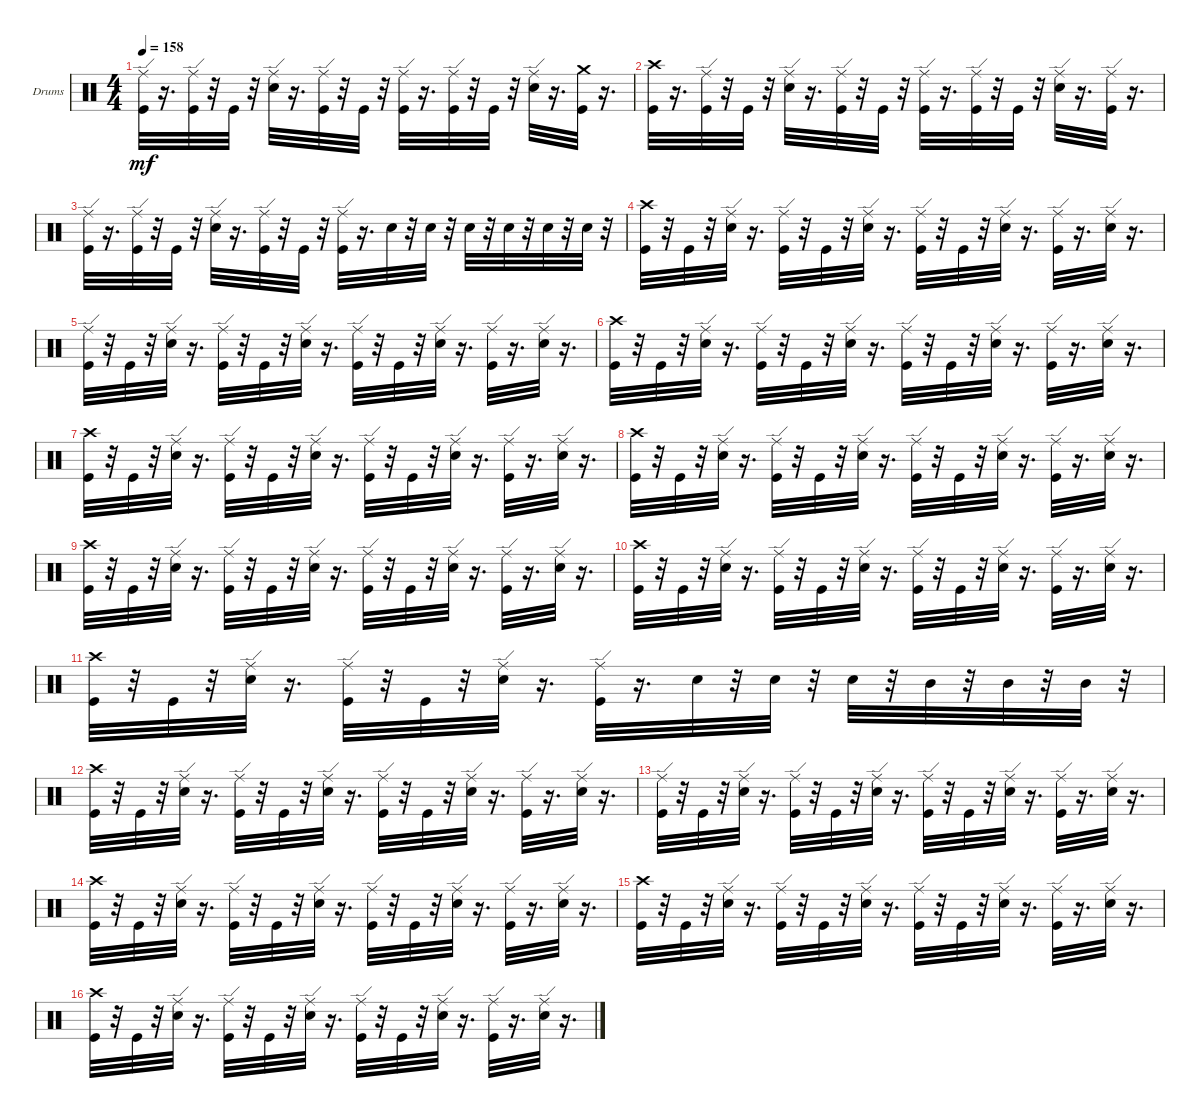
\bracketExtendMode groupsimilarinstruments
\firstSystemTrackNameOrientation horizontal
\otherSystemsTrackNameOrientation horizontal
\track ("" "Drums") {instrument percussion}
\staff {score}
\articulation defaults
\ts (4 4)
\tempo 158
\clef neutral
\ks c
("Ride (edge)" "Kick (hit)").32{dy mf} r.16{d} ("Ride (edge)" "Kick (hit)").32 r.32 "Kick (hit)".32 r.32 ("Ride (edge)" "Snare (hit) 2").32 r.16{d} ("Ride (edge)" "Kick (hit)").32 r.32 "Kick (hit)".32 r.32 ("Ride (edge)" "Kick (hit)").32 r.16{d} ("Ride (edge)" "Kick (hit)").32 r.32 "Kick (hit)".32 r.32 ("Ride (edge)" "Snare (hit) 2").32 r.16{d} ("Crash medium (hit)" "Kick (hit)").32 r.16{d} |
("Crash high (hit)" "Kick (hit)").32 r.16{d} ("Ride (edge)" "Kick (hit)").32 r.32 "Kick (hit)".32 r.32 ("Ride (edge)" "Snare (hit) 2").32 r.16{d} ("Ride (edge)" "Kick (hit)").32 r.32 "Kick (hit)".32 r.32 ("Ride (edge)" "Kick (hit)").32 r.16{d} ("Ride (edge)" "Kick (hit)").32 r.32 "Kick (hit)".32 r.32 ("Ride (edge)" "Snare (hit) 2").32 r.16{d} ("Ride (edge)" "Kick (hit)").32 r.16{d} |
("Ride (edge)" "Kick (hit)").32 r.16{d} ("Ride (edge)" "Kick (hit)").32 r.32 "Kick (hit)".32 r.32 ("Ride (edge)" "Snare (hit) 2").32 r.16{d} ("Ride (edge)" "Kick (hit)").32 r.32 "Kick (hit)".32 r.32 ("Ride (edge)" "Kick (hit)").32 r.16{d} "Snare (hit) 2".32 r.32 "Snare (hit) 2".32 r.32 "Snare (hit) 2".32 r.32 "Snare (hit) 2".32 r.32 "Snare (hit) 2".32 r.32 "Snare (hit) 2".32 r.32 |
("Crash high (hit)" "Kick (hit)").32 r.32 "Kick (hit)".32 r.32 ("Snare (hit) 2" "Ride (edge)").32 r.16{d} ("Ride (edge)" "Kick (hit)").32 r.32 "Kick (hit)".32 r.32 ("Ride (edge)" "Snare (hit) 2").32 r.16{d} ("Kick (hit)" "Ride (edge)").32 r.32 "Kick (hit)".32 r.32 ("Snare (hit) 2" "Ride (edge)").32 r.16{d} ("Kick (hit)" "Ride (edge)").32 r.16{d} ("Snare (hit) 2" "Ride (edge)").32 r.16{d} |
("Ride (edge)" "Kick (hit)").32 r.32 "Kick (hit)".32 r.32 ("Snare (hit) 2" "Ride (edge)").32 r.16{d} ("Ride (edge)" "Kick (hit)").32 r.32 "Kick (hit)".32 r.32 ("Ride (edge)" "Snare (hit) 2").32 r.16{d} ("Kick (hit)" "Ride (edge)").32 r.32 "Kick (hit)".32 r.32 ("Snare (hit) 2" "Ride (edge)").32 r.16{d} ("Kick (hit)" "Ride (edge)").32 r.16{d} ("Snare (hit) 2" "Ride (edge)").32 r.16{d} |
("Crash high (hit)" "Kick (hit)").32 r.32 "Kick (hit)".32 r.32 ("Snare (hit) 2" "Ride (edge)").32 r.16{d} ("Ride (edge)" "Kick (hit)").32 r.32 "Kick (hit)".32 r.32 ("Ride (edge)" "Snare (hit) 2").32 r.16{d} ("Kick (hit)" "Ride (edge)").32 r.32 "Kick (hit)".32 r.32 ("Snare (hit) 2" "Ride (edge)").32 r.16{d} ("Kick (hit)" "Ride (edge)").32 r.16{d} ("Snare (hit) 2" "Ride (edge)").32 r.16{d} |
("Crash high (hit)" "Kick (hit)").32 r.32 "Kick (hit)".32 r.32 ("Snare (hit) 2" "Ride (edge)").32 r.16{d} ("Ride (edge)" "Kick (hit)").32 r.32 "Kick (hit)".32 r.32 ("Ride (edge)" "Snare (hit) 2").32 r.16{d} ("Kick (hit)" "Ride (edge)").32 r.32 "Kick (hit)".32 r.32 ("Snare (hit) 2" "Ride (edge)").32 r.16{d} ("Kick (hit)" "Ride (edge)").32 r.16{d} ("Snare (hit) 2" "Ride (edge)").32 r.16{d} |
("Crash high (hit)" "Kick (hit)").32 r.32 "Kick (hit)".32 r.32 ("Snare (hit) 2" "Ride (edge)").32 r.16{d} ("Ride (edge)" "Kick (hit)").32 r.32 "Kick (hit)".32 r.32 ("Ride (edge)" "Snare (hit) 2").32 r.16{d} ("Kick (hit)" "Ride (edge)").32 r.32 "Kick (hit)".32 r.32 ("Snare (hit) 2" "Ride (edge)").32 r.16{d} ("Kick (hit)" "Ride (edge)").32 r.16{d} ("Snare (hit) 2" "Ride (edge)").32 r.16{d} |
("Crash high (hit)" "Kick (hit)").32 r.32 "Kick (hit)".32 r.32 ("Snare (hit) 2" "Ride (edge)").32 r.16{d} ("Ride (edge)" "Kick (hit)").32 r.32 "Kick (hit)".32 r.32 ("Ride (edge)" "Snare (hit) 2").32 r.16{d} ("Kick (hit)" "Ride (edge)").32 r.32 "Kick (hit)".32 r.32 ("Snare (hit) 2" "Ride (edge)").32 r.16{d} ("Kick (hit)" "Ride (edge)").32 r.16{d} ("Snare (hit) 2" "Ride (edge)").32 r.16{d} |
("Crash high (hit)" "Kick (hit)").32 r.32 "Kick (hit)".32 r.32 ("Snare (hit) 2" "Ride (edge)").32 r.16{d} ("Ride (edge)" "Kick (hit)").32 r.32 "Kick (hit)".32 r.32 ("Ride (edge)" "Snare (hit) 2").32 r.16{d} ("Kick (hit)" "Ride (edge)").32 r.32 "Kick (hit)".32 r.32 ("Snare (hit) 2" "Ride (edge)").32 r.16{d} ("Kick (hit)" "Ride (edge)").32 r.16{d} ("Snare (hit) 2" "Ride (edge)").32 r.16{d} |
("Crash high (hit)" "Kick (hit)").32 r.32 "Kick (hit)".32 r.32 ("Snare (hit) 2" "Ride (edge)").32 r.16{d} ("Ride (edge)" "Kick (hit)").32 r.32 "Kick (hit)".32 r.32 ("Ride (edge)" "Snare (hit) 2").32 r.16{d} ("Kick (hit)" "Ride (edge)").32 r.16{d} "Snare (hit) 2".32 r.32 "Snare (hit) 2".32 r.32 "Snare (hit) 2".32 r.32 "Mid Tom (hit)".32 r.32 "Mid Tom (hit)".32 r.32 "Mid Tom (hit)".32 r.32 |
("Crash high (hit)" "Kick (hit)").32 r.32 "Kick (hit)".32 r.32 ("Snare (hit) 2" "Ride (edge)").32 r.16{d} ("Ride (edge)" "Kick (hit)").32 r.32 "Kick (hit)".32 r.32 ("Ride (edge)" "Snare (hit) 2").32 r.16{d} ("Kick (hit)" "Ride (edge)").32 r.32 "Kick (hit)".32 r.32 ("Snare (hit) 2" "Ride (edge)").32 r.16{d} ("Kick (hit)" "Ride (edge)").32 r.16{d} ("Snare (hit) 2" "Ride (edge)").32 r.16{d} |
("Ride (edge)" "Kick (hit)").32 r.32 "Kick (hit)".32 r.32 ("Snare (hit) 2" "Ride (edge)").32 r.16{d} ("Ride (edge)" "Kick (hit)").32 r.32 "Kick (hit)".32 r.32 ("Ride (edge)" "Snare (hit) 2").32 r.16{d} ("Kick (hit)" "Ride (edge)").32 r.32 "Kick (hit)".32 r.32 ("Snare (hit) 2" "Ride (edge)").32 r.16{d} ("Kick (hit)" "Ride (edge)").32 r.16{d} ("Snare (hit) 2" "Ride (edge)").32 r.16{d} |
("Crash high (hit)" "Kick (hit)").32 r.32 "Kick (hit)".32 r.32 ("Snare (hit) 2" "Ride (edge)").32 r.16{d} ("Ride (edge)" "Kick (hit)").32 r.32 "Kick (hit)".32 r.32 ("Ride (edge)" "Snare (hit) 2").32 r.16{d} ("Kick (hit)" "Ride (edge)").32 r.32 "Kick (hit)".32 r.32 ("Snare (hit) 2" "Ride (edge)").32 r.16{d} ("Kick (hit)" "Ride (edge)").32 r.16{d} ("Snare (hit) 2" "Ride (edge)").32 r.16{d} |
("Crash high (hit)" "Kick (hit)").32 r.32 "Kick (hit)".32 r.32 ("Snare (hit) 2" "Ride (edge)").32 r.16{d} ("Ride (edge)" "Kick (hit)").32 r.32 "Kick (hit)".32 r.32 ("Ride (edge)" "Snare (hit) 2").32 r.16{d} ("Kick (hit)" "Ride (edge)").32 r.32 "Kick (hit)".32 r.32 ("Snare (hit) 2" "Ride (edge)").32 r.16{d} ("Kick (hit)" "Ride (edge)").32 r.16{d} ("Snare (hit) 2" "Ride (edge)").32 r.16{d} |
("Crash high (hit)" "Kick (hit)").32 r.32 "Kick (hit)".32 r.32 ("Snare (hit) 2" "Ride (edge)").32 r.16{d} ("Ride (edge)" "Kick (hit)").32 r.32 "Kick (hit)".32 r.32 ("Ride (edge)" "Snare (hit) 2").32 r.16{d} ("Kick (hit)" "Ride (edge)").32 r.32 "Kick (hit)".32 r.32 ("Snare (hit) 2" "Ride (edge)").32 r.16{d} ("Kick (hit)" "Ride (edge)").32 r.16{d} ("Snare (hit) 2" "Ride (edge)").32 r.16{d}
